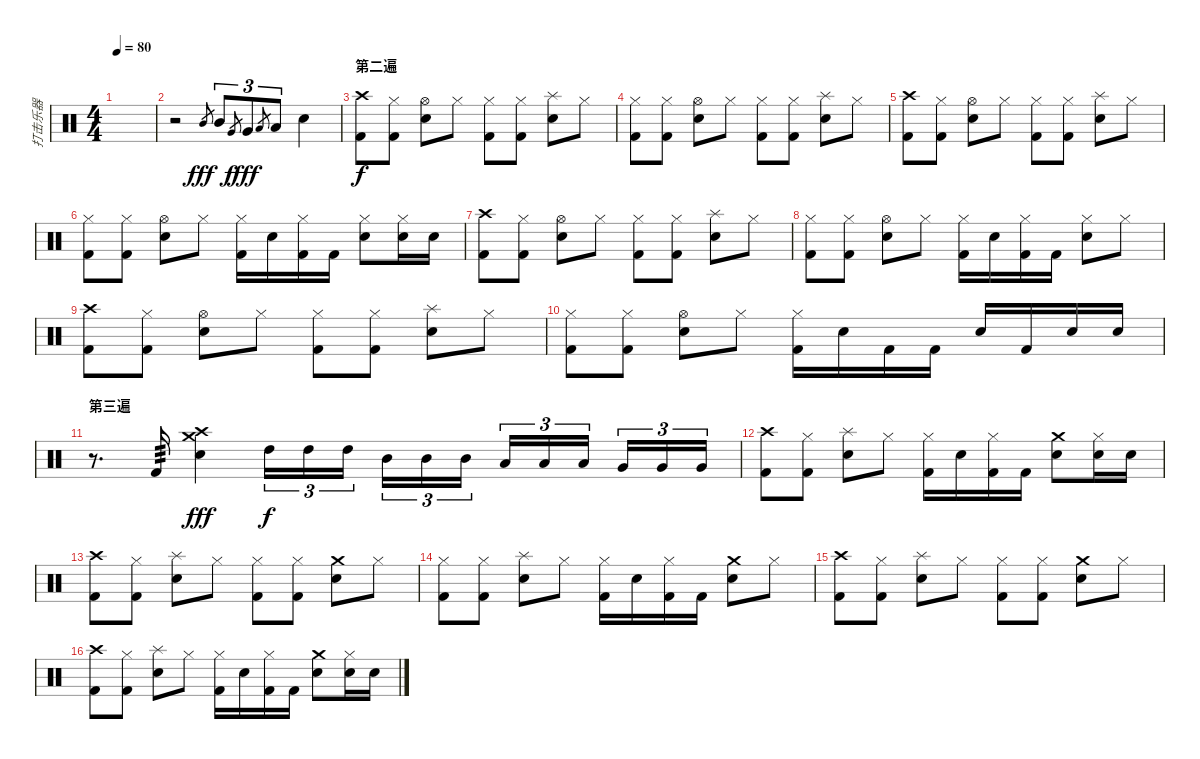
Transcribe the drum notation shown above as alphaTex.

\track ("打击乐器" "打击乐器") {instrument percussion}
\staff {score}
\articulation defaults
\ts (4 4)
\tempo 80
\clef neutral
\ks c
|
r.2 "Mid Tom (hit)".8{gr dy fff} "Mid Tom (hit)".8{tu (3 2)} "Very Low Tom (hit)".8{gr dy f} "Very Low Tom (hit)".8{tu (3 2) dy fff} "Low Floor Tom (hit)".8{gr} "Low Floor Tom (hit)".8{tu (3 2)} "Electric Snare (hit)".4 |
\section ("" "第二遍")
("Crash high (hit)" "Kick (hit) 2").8{dy f} ("Hi-Hat (closed)" "Kick (hit) 2").8 ("Hi-Hat (open)" "Electric Snare (hit)").8 "Hi-Hat (closed)".8 ("Hi-Hat (closed)" "Kick (hit) 2").8 ("Hi-Hat (closed)" "Kick (hit) 2").8 ("Splash (hit)" "Electric Snare (hit)").8 "Hi-Hat (closed)".8 |
("Hi-Hat (closed)" "Kick (hit) 2").8 ("Hi-Hat (closed)" "Kick (hit) 2").8 ("Hi-Hat (open)" "Electric Snare (hit)").8 "Hi-Hat (closed)".8 ("Hi-Hat (closed)" "Kick (hit) 2").8 ("Hi-Hat (closed)" "Kick (hit) 2").8 ("Splash (hit)" "Electric Snare (hit)").8 "Hi-Hat (closed)".8 |
("Crash high (hit)" "Kick (hit) 2").8 ("Hi-Hat (closed)" "Kick (hit) 2").8 ("Hi-Hat (open)" "Electric Snare (hit)").8 "Hi-Hat (closed)".8 ("Hi-Hat (closed)" "Kick (hit) 2").8 ("Hi-Hat (closed)" "Kick (hit) 2").8 ("Splash (hit)" "Electric Snare (hit)").8 "Hi-Hat (closed)".8 |
("Hi-Hat (closed)" "Kick (hit) 2").8 ("Hi-Hat (closed)" "Kick (hit) 2").8 ("Hi-Hat (open)" "Electric Snare (hit)").8 "Hi-Hat (closed)".8 ("Hi-Hat (closed)" "Kick (hit) 2").16 "Electric Snare (hit)".16 ("Hi-Hat (closed)" "Kick (hit) 2").16 "Kick (hit) 2".16 ("Hi-Hat (closed)" "Electric Snare (hit)").8 ("Hi-Hat (closed)" "Electric Snare (hit)").16 "Electric Snare (hit)".16 |
("Crash high (hit)" "Kick (hit) 2").8 ("Hi-Hat (closed)" "Kick (hit) 2").8 ("Hi-Hat (open)" "Electric Snare (hit)").8 "Hi-Hat (closed)".8 ("Hi-Hat (closed)" "Kick (hit) 2").8 ("Hi-Hat (closed)" "Kick (hit) 2").8 ("Splash (hit)" "Electric Snare (hit)").8 "Hi-Hat (closed)".8 |
("Hi-Hat (closed)" "Kick (hit) 2").8 ("Hi-Hat (closed)" "Kick (hit) 2").8 ("Hi-Hat (open)" "Electric Snare (hit)").8 "Hi-Hat (closed)".8 ("Hi-Hat (closed)" "Kick (hit) 2").16 "Electric Snare (hit)".16 ("Hi-Hat (closed)" "Kick (hit) 2").16 "Kick (hit) 2".16 ("Hi-Hat (closed)" "Electric Snare (hit)").8 "Hi-Hat (closed)".8 |
("Crash high (hit)" "Kick (hit) 2").8 ("Hi-Hat (closed)" "Kick (hit) 2").8 ("Hi-Hat (open)" "Electric Snare (hit)").8 "Hi-Hat (closed)".8 ("Hi-Hat (closed)" "Kick (hit) 2").8 ("Hi-Hat (closed)" "Kick (hit) 2").8 ("Splash (hit)" "Electric Snare (hit)").8 "Hi-Hat (closed)".8 |
("Hi-Hat (closed)" "Kick (hit) 2").8 ("Hi-Hat (closed)" "Kick (hit) 2").8 ("Hi-Hat (open)" "Electric Snare (hit)").8 "Hi-Hat (closed)".8 ("Hi-Hat (closed)" "Kick (hit) 2").16 "Electric Snare (hit)".16 "Kick (hit) 2".16 "Kick (hit) 2".16 "Electric Snare (hit)".16 "Kick (hit) 2".16 "Electric Snare (hit)".16 "Electric Snare (hit)".16 |
\section ("" "第三遍")
r.8{d} "Kick (hit) 2".16{tp 3} ("Crash high (hit)" "Crash medium (hit)" "Electric Snare (hit)").4{dy fff} "High Tom (hit)".16{tu (3 2) dy f} "High Tom (hit)".16{tu (3 2)} "High Tom (hit)".16{tu (3 2)} "Mid Tom (hit)".16{tu (3 2)} "Mid Tom (hit)".16{tu (3 2)} "Mid Tom (hit)".16{tu (3 2)} "Low Tom (hit)".16{tu (3 2)} "Low Tom (hit)".16{tu (3 2)} "Low Tom (hit)".16{tu (3 2)} "Very Low Tom (hit)".16{tu (3 2)} "Very Low Tom (hit)".16{tu (3 2)} "Very Low Tom (hit)".16{tu (3 2)} |
("Crash high (hit)" "Kick (hit) 2").8 ("Hi-Hat (closed)" "Kick (hit) 2").8 ("Splash (hit)" "Electric Snare (hit)").8 "Hi-Hat (closed)".8 ("Hi-Hat (closed)" "Kick (hit) 2").16 "Electric Snare (hit)".16 ("Hi-Hat (closed)" "Kick (hit) 2").16 "Kick (hit) 2".16 ("Crash medium (hit)" "Electric Snare (hit)").8 ("Hi-Hat (closed)" "Electric Snare (hit)").16 "Electric Snare (hit)".16 |
("Crash high (hit)" "Kick (hit) 2").8 ("Hi-Hat (closed)" "Kick (hit) 2").8 ("Splash (hit)" "Electric Snare (hit)").8 "Hi-Hat (closed)".8 ("Hi-Hat (closed)" "Kick (hit) 2").8 ("Hi-Hat (closed)" "Kick (hit) 2").8 ("Crash medium (hit)" "Electric Snare (hit)").8 "Hi-Hat (closed)".8 |
("Hi-Hat (closed)" "Kick (hit) 2").8 ("Hi-Hat (closed)" "Kick (hit) 2").8 ("Splash (hit)" "Electric Snare (hit)").8 "Hi-Hat (closed)".8 ("Hi-Hat (closed)" "Kick (hit) 2").16 "Electric Snare (hit)".16 ("Hi-Hat (closed)" "Kick (hit) 2").16 "Kick (hit) 2".16 ("Crash medium (hit)" "Electric Snare (hit)").8 "Hi-Hat (closed)".8 |
("Crash high (hit)" "Kick (hit) 2").8 ("Hi-Hat (closed)" "Kick (hit) 2").8 ("Splash (hit)" "Electric Snare (hit)").8 "Hi-Hat (closed)".8 ("Hi-Hat (closed)" "Kick (hit) 2").8 ("Hi-Hat (closed)" "Kick (hit) 2").8 ("Crash medium (hit)" "Electric Snare (hit)").8 "Hi-Hat (closed)".8 |
("Crash high (hit)" "Kick (hit) 2").8 ("Hi-Hat (closed)" "Kick (hit) 2").8 ("Splash (hit)" "Electric Snare (hit)").8 "Hi-Hat (closed)".8 ("Hi-Hat (closed)" "Kick (hit) 2").16 "Electric Snare (hit)".16 ("Hi-Hat (closed)" "Kick (hit) 2").16 "Kick (hit) 2".16 ("Crash medium (hit)" "Electric Snare (hit)").8 ("Hi-Hat (closed)" "Electric Snare (hit)").16 "Electric Snare (hit)".16
